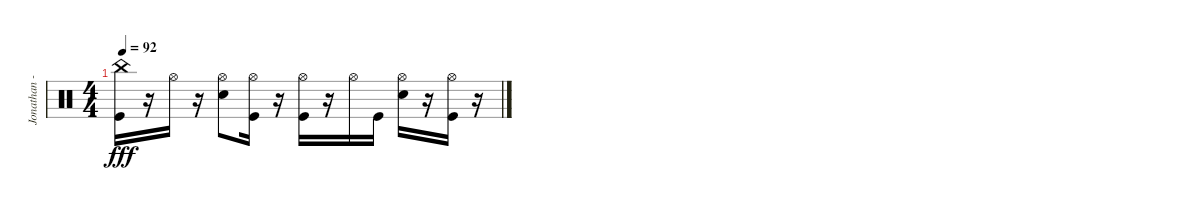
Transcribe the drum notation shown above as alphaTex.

\track ("Jonathan - Drums" "Jonathan -") {instrument percussion}
\staff {score}
\articulation defaults
\ts (4 4)
\tempo 92
\clef neutral
\ks c
("China (hit)" "Kick (hit)").16{dy fff volume 4} r.16 "Hi-Hat (open)".16{volume 4} r.16 ("Hi-Hat (open)" "Electric Snare (hit)").8{volume 3} ("Hi-Hat (open)" "Kick (hit)").16{volume 2} r.16 ("Hi-Hat (open)" "Kick (hit)").16{volume 2} r.16 "Hi-Hat (open)".16{volume 2} "Kick (hit)".16{volume 1} ("Hi-Hat (open)" "Electric Snare (hit)").16{volume 1} r.16 ("Hi-Hat (open)" "Kick (hit)").16{volume 1} r.16
